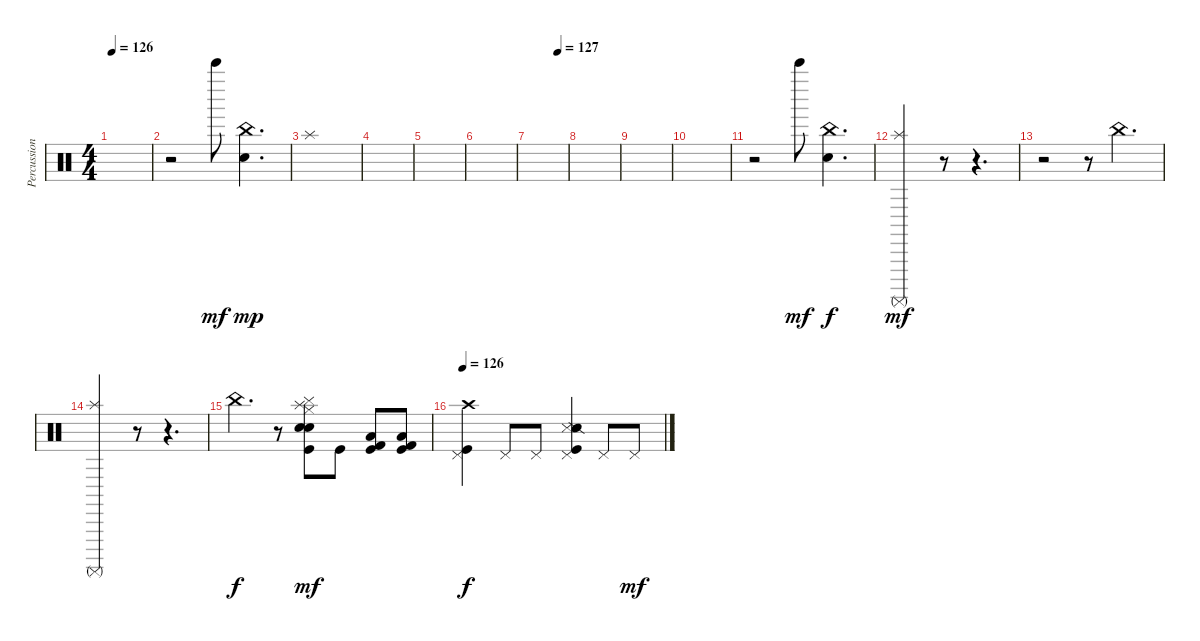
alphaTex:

\track ("Percussion" "Percussion") {instrument percussion}
\staff {score}
\articulation defaults
\ts (4 4)
\tempo 126
\clef neutral
\ks c
|
r.2 "Bell Tree (hit)".8{dy mf} ("China (hit)" "Snare (hit)").4{d dy mp} |
"Splash (hit)".1 |
|
|
|
\tempo (127 0.75)
|
|
|
|
r.2 "Bell Tree (hit)".8{dy mf} ("China (hit)" "Snare (hit)").4{d dy f} |
("Splash (hit)" "Surdo (mute)").2{dy mf} r.8 r.4{d} |
r.2 r.8 "China (hit)".4{d} |
("Splash (hit)" "Surdo (mute)").2 r.8 r.4{d} |
"China (hit)".4{d dy f} r.8 ("Cymbal (hit)" "Electric Snare (hit)" "Kick (hit)" "Snare (hit)" "Splash (hit)" "Hi-Hat (closed)").8{dy mf} "Kick (hit)".8 ("Low Floor Tom (hit)" "Kick (hit)" "Kick (hit) 2").8 ("Low Floor Tom (hit)" "Kick (hit)" "Kick (hit) 2").8 |
\tempo 126
("Pedal Hi-Hat (hit)" "Kick (hit)" "Crash high (hit)").4{dy f} "Pedal Hi-Hat (hit)".8 "Pedal Hi-Hat (hit)".8 ("Pedal Hi-Hat (hit)" "Snare (side stick) 3" "Snare (side stick) 2" "Kick (hit)").4 "Pedal Hi-Hat (hit)".8 "Pedal Hi-Hat (hit)".8{dy mf}
